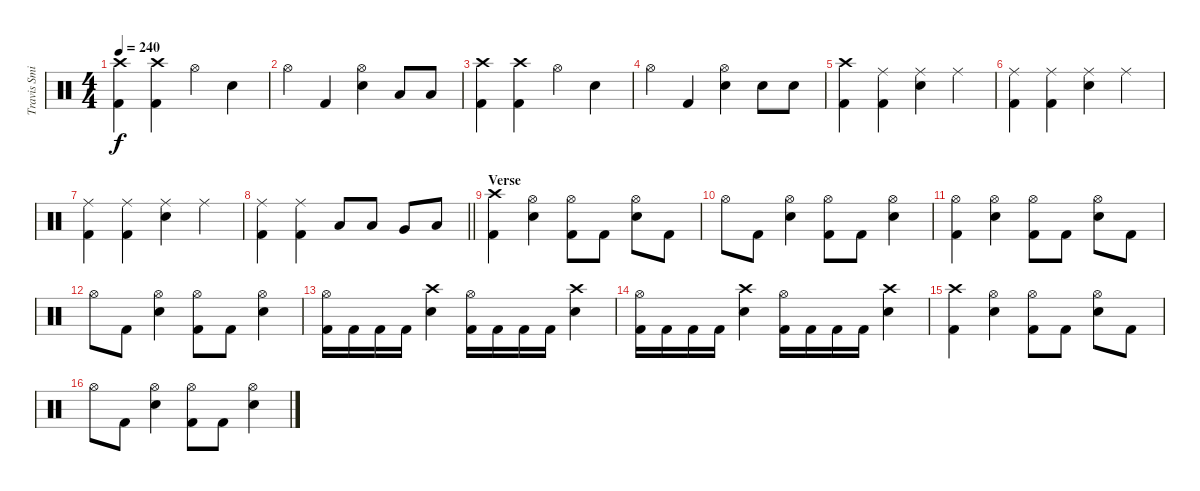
\track ("Travis Smith" "Travis Smi") {instrument percussion}
\staff {score}
\articulation defaults
\ts (4 4)
\tempo 240
\clef neutral
\ks c
("Kick (hit) 2" "Crash high (hit)").4{dy f} ("Kick (hit) 2" "Crash high (hit)").4 "Hi-Hat (open)".4 "Snare (hit) 2".4 |
"Hi-Hat (open)".4 "Kick (hit) 2".4 ("Snare (hit) 2" "Hi-Hat (open)").4 "Low Tom (hit)".8 "Low Tom (hit)".8 |
("Kick (hit) 2" "Crash high (hit)").4 ("Kick (hit) 2" "Crash high (hit)").4 "Hi-Hat (open)".4 "Snare (hit) 2".4 |
"Hi-Hat (open)".4 "Kick (hit) 2".4 ("Snare (hit) 2" "Hi-Hat (open)").4 "Snare (hit) 2".8 "Snare (hit) 2".8 |
("Kick (hit) 2" "Crash high (hit)").4 ("Kick (hit) 2" "Ride (middle)").4 ("Snare (hit) 2" "Ride (middle)").4 "Ride (middle)".4 |
("Kick (hit) 2" "Ride (middle)").4 ("Kick (hit) 2" "Ride (middle)").4 ("Snare (hit) 2" "Ride (middle)").4 "Ride (middle)".4 |
("Kick (hit) 2" "Ride (middle)").4 ("Kick (hit) 2" "Ride (middle)").4 ("Snare (hit) 2" "Ride (middle)").4 "Ride (middle)".4 |
\barLineRight lightlight
("Kick (hit) 2" "Ride (middle)").4 ("Kick (hit) 2" "Ride (middle)").4 "Low Tom (hit)".8 "Low Tom (hit)".8 "Very Low Tom (hit)".8 "Low Floor Tom (hit)".8 |
\section ("" "Verse")
("Kick (hit) 2" "Crash high (hit)").4 ("Snare (hit) 2" "Hi-Hat (open)").4 ("Kick (hit) 2" "Hi-Hat (open)").8 "Kick (hit) 2".8 ("Snare (hit) 2" "Hi-Hat (open)").8 "Kick (hit) 2".8 |
"Hi-Hat (open)".8 "Kick (hit) 2".8 ("Snare (hit) 2" "Hi-Hat (open)").4 ("Kick (hit) 2" "Hi-Hat (open)").8 "Kick (hit) 2".8 ("Snare (hit) 2" "Hi-Hat (open)").4 |
("Kick (hit) 2" "Hi-Hat (open)").4 ("Snare (hit) 2" "Hi-Hat (open)").4 ("Kick (hit) 2" "Hi-Hat (open)").8 "Kick (hit) 2".8 ("Snare (hit) 2" "Hi-Hat (open)").8 "Kick (hit) 2".8 |
"Hi-Hat (open)".8 "Kick (hit) 2".8 ("Snare (hit) 2" "Hi-Hat (open)").4 ("Kick (hit) 2" "Hi-Hat (open)").8 "Kick (hit) 2".8 ("Snare (hit) 2" "Hi-Hat (open)").4 |
("Kick (hit) 2" "Hi-Hat (open)").16 "Kick (hit) 2".16 "Kick (hit) 2".16 "Kick (hit) 2".16 ("Snare (hit) 2" "Crash high (hit)").4 ("Kick (hit) 2" "Hi-Hat (open)").16 "Kick (hit) 2".16 "Kick (hit) 2".16 "Kick (hit) 2".16 ("Snare (hit) 2" "Crash high (hit)").4 |
("Kick (hit) 2" "Hi-Hat (open)").16 "Kick (hit) 2".16 "Kick (hit) 2".16 "Kick (hit) 2".16 ("Snare (hit) 2" "Crash high (hit)").4 ("Kick (hit) 2" "Hi-Hat (open)").16 "Kick (hit) 2".16 "Kick (hit) 2".16 "Kick (hit) 2".16 ("Snare (hit) 2" "Crash high (hit)").4 |
("Kick (hit) 2" "Crash high (hit)").4 ("Snare (hit) 2" "Hi-Hat (open)").4 ("Kick (hit) 2" "Hi-Hat (open)").8 "Kick (hit) 2".8 ("Snare (hit) 2" "Hi-Hat (open)").8 "Kick (hit) 2".8 |
"Hi-Hat (open)".8 "Kick (hit) 2".8 ("Snare (hit) 2" "Hi-Hat (open)").4 ("Kick (hit) 2" "Hi-Hat (open)").8 "Kick (hit) 2".8 ("Snare (hit) 2" "Hi-Hat (open)").4
